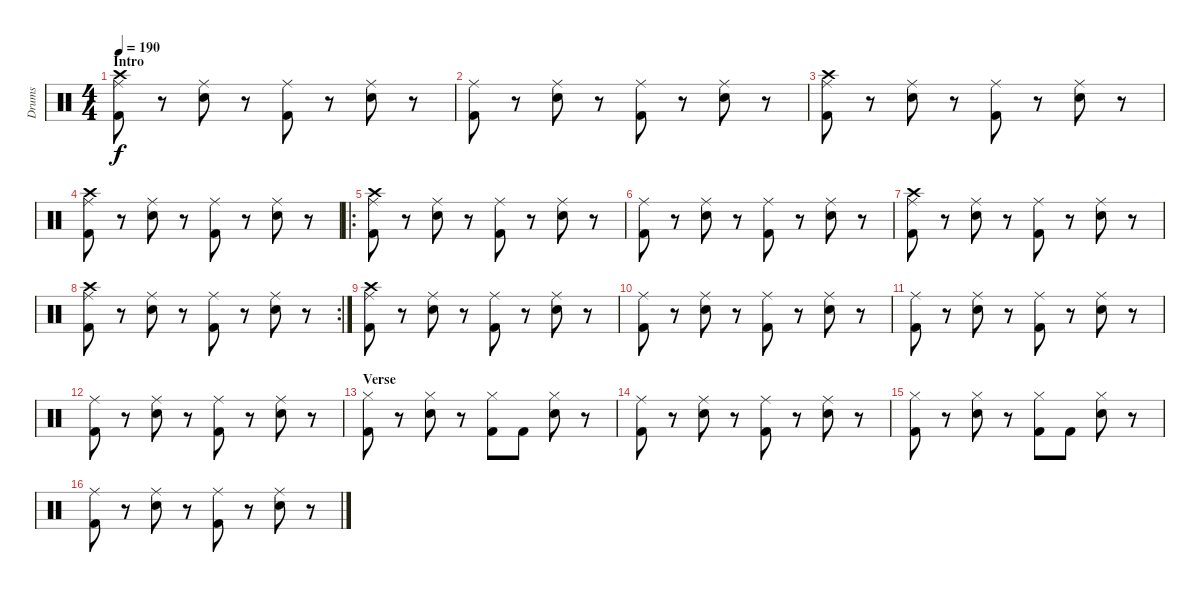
\track ("Drums" "Drums") {instrument percussion}
\staff {score}
\articulation defaults
\ts (4 4)
\section ("" "Intro")
\tempo 190
\clef neutral
\ks c
("Crash high (hit)" "Ride (middle)" "Kick (hit) 2").8{dy f} r.8 ("Ride (middle)" "Electric Snare (hit)").8 r.8 ("Ride (middle)" "Kick (hit) 2").8 r.8 ("Ride (middle)" "Electric Snare (hit)").8 r.8 |
("Ride (middle)" "Kick (hit) 2").8 r.8 ("Ride (middle)" "Electric Snare (hit)").8 r.8 ("Ride (middle)" "Kick (hit) 2").8 r.8 ("Ride (middle)" "Electric Snare (hit)").8 r.8 |
("Crash high (hit)" "Ride (middle)" "Kick (hit) 2").8 r.8 ("Ride (middle)" "Electric Snare (hit)").8 r.8 ("Ride (middle)" "Kick (hit) 2").8 r.8 ("Ride (middle)" "Electric Snare (hit)").8 r.8 |
("Crash high (hit)" "Ride (middle)" "Kick (hit) 2").8 r.8 ("Ride (middle)" "Electric Snare (hit)").8 r.8 ("Ride (middle)" "Kick (hit) 2").8 r.8 ("Ride (middle)" "Electric Snare (hit)").8 r.8 |
\ro
("Crash high (hit)" "Ride (middle)" "Kick (hit) 2").8 r.8 ("Ride (middle)" "Electric Snare (hit)").8 r.8 ("Ride (middle)" "Kick (hit) 2").8 r.8 ("Ride (middle)" "Electric Snare (hit)").8 r.8 |
("Ride (middle)" "Kick (hit) 2").8 r.8 ("Ride (middle)" "Electric Snare (hit)").8 r.8 ("Ride (middle)" "Kick (hit) 2").8 r.8 ("Ride (middle)" "Electric Snare (hit)").8 r.8 |
("Crash high (hit)" "Ride (middle)" "Kick (hit) 2").8 r.8 ("Ride (middle)" "Electric Snare (hit)").8 r.8 ("Ride (middle)" "Kick (hit) 2").8 r.8 ("Ride (middle)" "Electric Snare (hit)").8 r.8 |
\rc 2
("Crash high (hit)" "Ride (middle)" "Kick (hit) 2").8 r.8 ("Ride (middle)" "Electric Snare (hit)").8 r.8 ("Ride (middle)" "Kick (hit) 2").8 r.8 ("Ride (middle)" "Electric Snare (hit)").8 r.8 |
("Crash high (hit)" "Ride (middle)" "Kick (hit) 2").8 r.8 ("Ride (middle)" "Electric Snare (hit)").8 r.8 ("Ride (middle)" "Kick (hit) 2").8 r.8 ("Ride (middle)" "Electric Snare (hit)").8 r.8 |
("Ride (middle)" "Kick (hit) 2").8 r.8 ("Ride (middle)" "Electric Snare (hit)").8 r.8 ("Ride (middle)" "Kick (hit) 2").8 r.8 ("Ride (middle)" "Electric Snare (hit)").8 r.8 |
("Ride (middle)" "Kick (hit) 2").8 r.8 ("Ride (middle)" "Electric Snare (hit)").8 r.8 ("Ride (middle)" "Kick (hit) 2").8 r.8 ("Ride (middle)" "Electric Snare (hit)").8 r.8 |
("Ride (middle)" "Kick (hit) 2").8 r.8 ("Ride (middle)" "Electric Snare (hit)").8 r.8 ("Ride (middle)" "Kick (hit) 2").8 r.8 ("Ride (middle)" "Electric Snare (hit)").8 r.8 |
\section ("" "Verse")
("Hi-Hat (closed)" "Kick (hit) 2").8 r.8 ("Hi-Hat (closed)" "Electric Snare (hit)").8 r.8 ("Hi-Hat (closed)" "Kick (hit) 2").8 "Kick (hit) 2".8 ("Hi-Hat (closed)" "Electric Snare (hit)").8 r.8 |
("Ride (middle)" "Kick (hit) 2").8 r.8 ("Ride (middle)" "Electric Snare (hit)").8 r.8 ("Ride (middle)" "Kick (hit) 2").8 r.8 ("Ride (middle)" "Electric Snare (hit)").8 r.8 |
("Hi-Hat (closed)" "Kick (hit) 2").8 r.8 ("Hi-Hat (closed)" "Electric Snare (hit)").8 r.8 ("Hi-Hat (closed)" "Kick (hit) 2").8 "Kick (hit) 2".8 ("Hi-Hat (closed)" "Electric Snare (hit)").8 r.8 |
("Ride (middle)" "Kick (hit) 2").8 r.8 ("Ride (middle)" "Electric Snare (hit)").8 r.8 ("Ride (middle)" "Kick (hit) 2").8 r.8 ("Ride (middle)" "Electric Snare (hit)").8 r.8
